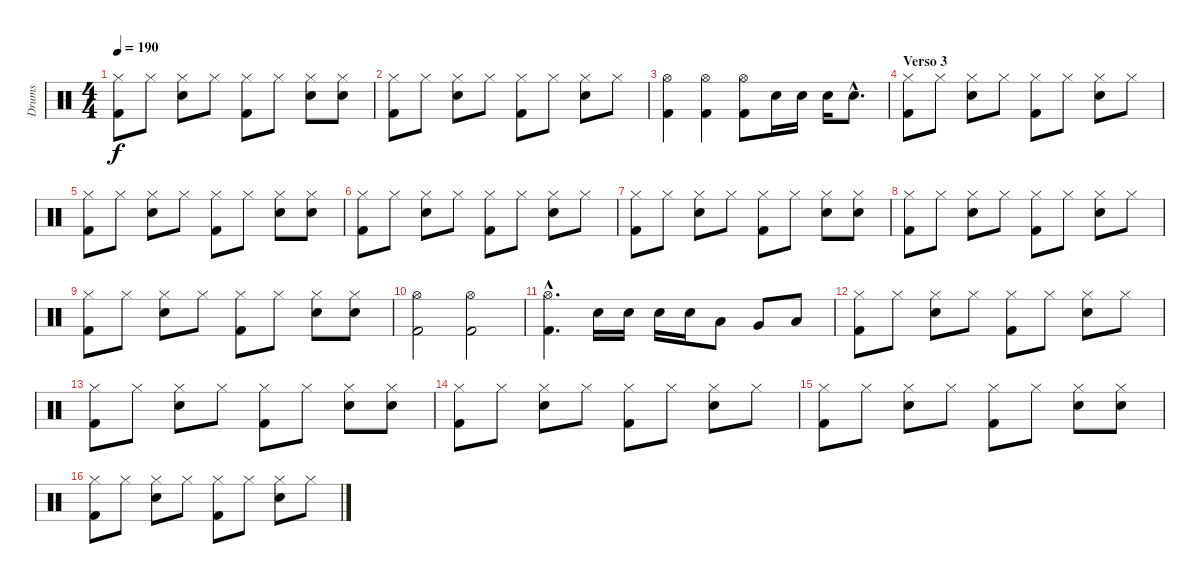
\track ("Drums" "Drums") {instrument percussion}
\staff {score}
\articulation defaults
\ts (4 4)
\tempo 190
\clef neutral
\ks c
("Kick (hit) 2" "Hi-Hat (closed)").8{dy f} "Hi-Hat (closed)".8 ("Snare (hit) 2" "Hi-Hat (closed)").8 "Hi-Hat (closed)".8 ("Kick (hit) 2" "Hi-Hat (closed)").8 "Hi-Hat (closed)".8 ("Snare (hit) 2" "Hi-Hat (closed)").8 ("Snare (hit) 2" "Hi-Hat (closed)").8 |
("Kick (hit) 2" "Hi-Hat (closed)").8 "Hi-Hat (closed)".8 ("Snare (hit) 2" "Hi-Hat (closed)").8 "Hi-Hat (closed)".8 ("Kick (hit) 2" "Hi-Hat (closed)").8 "Hi-Hat (closed)".8 ("Snare (hit) 2" "Hi-Hat (closed)").8 "Hi-Hat (closed)".8 |
("Kick (hit) 2" "Hi-Hat (open)").4 ("Kick (hit) 2" "Hi-Hat (open)").4 ("Kick (hit) 2" "Hi-Hat (open)").8 "Snare (hit) 2".16 "Snare (hit) 2".16 "Snare (hit) 2".16 "Snare (hit) 2"{hac}.8{d} |
\section ("" "Verso 3")
("Kick (hit) 2" "Hi-Hat (closed)").8 "Hi-Hat (closed)".8 ("Snare (hit) 2" "Hi-Hat (closed)").8 "Hi-Hat (closed)".8 ("Kick (hit) 2" "Hi-Hat (closed)").8 "Hi-Hat (closed)".8 ("Snare (hit) 2" "Hi-Hat (closed)").8 "Hi-Hat (closed)".8 |
("Kick (hit) 2" "Hi-Hat (closed)").8 "Hi-Hat (closed)".8 ("Snare (hit) 2" "Hi-Hat (closed)").8 "Hi-Hat (closed)".8 ("Kick (hit) 2" "Hi-Hat (closed)").8 "Hi-Hat (closed)".8 ("Snare (hit) 2" "Hi-Hat (closed)").8 ("Snare (hit) 2" "Hi-Hat (closed)").8 |
("Kick (hit) 2" "Hi-Hat (closed)").8 "Hi-Hat (closed)".8 ("Snare (hit) 2" "Hi-Hat (closed)").8 "Hi-Hat (closed)".8 ("Kick (hit) 2" "Hi-Hat (closed)").8 "Hi-Hat (closed)".8 ("Snare (hit) 2" "Hi-Hat (closed)").8 "Hi-Hat (closed)".8 |
("Kick (hit) 2" "Hi-Hat (closed)").8 "Hi-Hat (closed)".8 ("Snare (hit) 2" "Hi-Hat (closed)").8 "Hi-Hat (closed)".8 ("Kick (hit) 2" "Hi-Hat (closed)").8 "Hi-Hat (closed)".8 ("Snare (hit) 2" "Hi-Hat (closed)").8 ("Snare (hit) 2" "Hi-Hat (closed)").8 |
("Kick (hit) 2" "Hi-Hat (closed)").8 "Hi-Hat (closed)".8 ("Snare (hit) 2" "Hi-Hat (closed)").8 "Hi-Hat (closed)".8 ("Kick (hit) 2" "Hi-Hat (closed)").8 "Hi-Hat (closed)".8 ("Snare (hit) 2" "Hi-Hat (closed)").8 "Hi-Hat (closed)".8 |
("Kick (hit) 2" "Hi-Hat (closed)").8 "Hi-Hat (closed)".8 ("Snare (hit) 2" "Hi-Hat (closed)").8 "Hi-Hat (closed)".8 ("Kick (hit) 2" "Hi-Hat (closed)").8 "Hi-Hat (closed)".8 ("Snare (hit) 2" "Hi-Hat (closed)").8 ("Snare (hit) 2" "Hi-Hat (closed)").8 |
("Hi-Hat (open)" "Kick (hit) 2").2 ("Kick (hit) 2" "Hi-Hat (open)").2 |
("Hi-Hat (open)"{hac} "Kick (hit) 2"{hac}).4{d} "Snare (hit) 2".16 "Snare (hit) 2".16 "Snare (hit) 2".16 "Snare (hit) 2".16 "Low Tom (hit)".8 "Very Low Tom (hit)".8 "Low Floor Tom (hit)".8 |
("Kick (hit) 2" "Hi-Hat (closed)").8 "Hi-Hat (closed)".8 ("Snare (hit) 2" "Hi-Hat (closed)").8 "Hi-Hat (closed)".8 ("Kick (hit) 2" "Hi-Hat (closed)").8 "Hi-Hat (closed)".8 ("Snare (hit) 2" "Hi-Hat (closed)").8 "Hi-Hat (closed)".8 |
("Kick (hit) 2" "Hi-Hat (closed)").8 "Hi-Hat (closed)".8 ("Snare (hit) 2" "Hi-Hat (closed)").8 "Hi-Hat (closed)".8 ("Kick (hit) 2" "Hi-Hat (closed)").8 "Hi-Hat (closed)".8 ("Snare (hit) 2" "Hi-Hat (closed)").8 ("Snare (hit) 2" "Hi-Hat (closed)").8 |
("Kick (hit) 2" "Hi-Hat (closed)").8 "Hi-Hat (closed)".8 ("Snare (hit) 2" "Hi-Hat (closed)").8 "Hi-Hat (closed)".8 ("Kick (hit) 2" "Hi-Hat (closed)").8 "Hi-Hat (closed)".8 ("Snare (hit) 2" "Hi-Hat (closed)").8 "Hi-Hat (closed)".8 |
("Kick (hit) 2" "Hi-Hat (closed)").8 "Hi-Hat (closed)".8 ("Snare (hit) 2" "Hi-Hat (closed)").8 "Hi-Hat (closed)".8 ("Kick (hit) 2" "Hi-Hat (closed)").8 "Hi-Hat (closed)".8 ("Snare (hit) 2" "Hi-Hat (closed)").8 ("Snare (hit) 2" "Hi-Hat (closed)").8 |
("Kick (hit) 2" "Hi-Hat (closed)").8 "Hi-Hat (closed)".8 ("Snare (hit) 2" "Hi-Hat (closed)").8 "Hi-Hat (closed)".8 ("Kick (hit) 2" "Hi-Hat (closed)").8 "Hi-Hat (closed)".8 ("Snare (hit) 2" "Hi-Hat (closed)").8 "Hi-Hat (closed)".8
